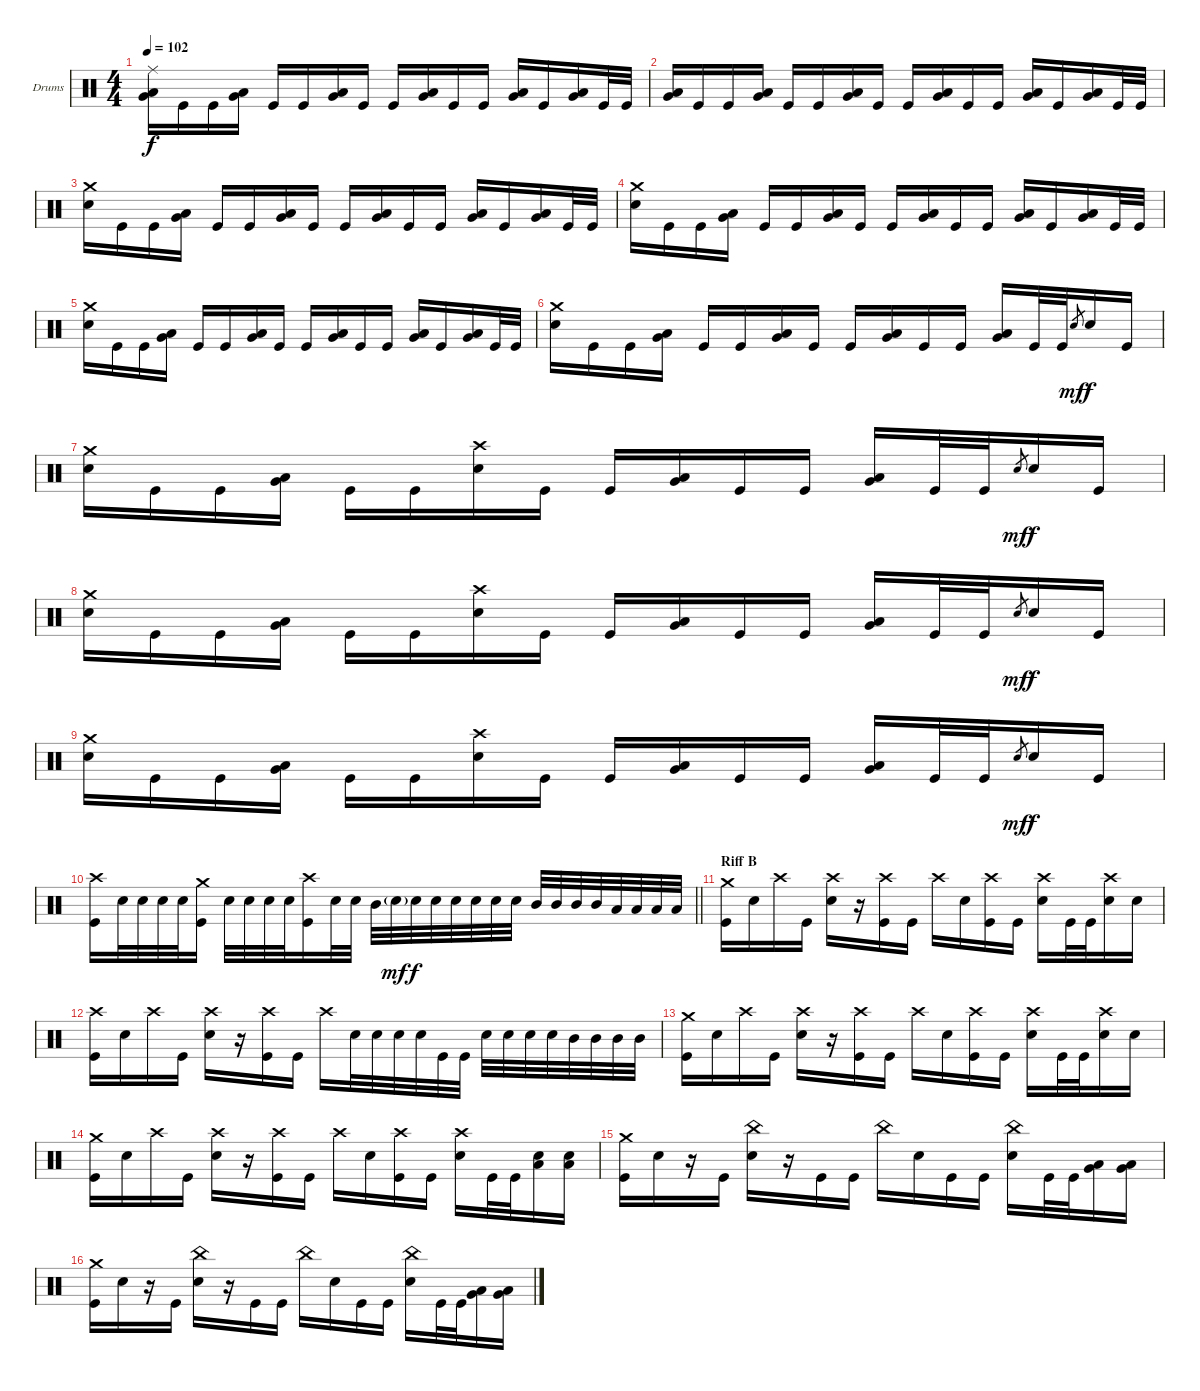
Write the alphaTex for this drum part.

\bracketExtendMode groupsimilarinstruments
\firstSystemTrackNameOrientation horizontal
\otherSystemsTrackNameOrientation horizontal
\track ("Dave McClain" "Drums") {instrument percussion}
\staff {score}
\articulation defaults
\ts (4 4)
\tempo 102
\clef neutral
\ks c
("Ride (middle)" "Low Tom (hit)" "Very Low Tom (hit)").16{dy f} "Kick (hit)".16 "Kick (hit)".16 ("Low Tom (hit)" "Very Low Tom (hit)").16 "Kick (hit)".16 "Kick (hit)".16 ("Low Tom (hit)" "Very Low Tom (hit)").16 "Kick (hit)".16 "Kick (hit)".16 ("Low Tom (hit)" "Very Low Tom (hit)").16 "Kick (hit)".16 "Kick (hit)".16 ("Low Tom (hit)" "Very Low Tom (hit)").16 "Kick (hit)".16 ("Low Tom (hit)" "Very Low Tom (hit)").16 "Kick (hit)".32 "Kick (hit)".32 |
("Low Tom (hit)" "Very Low Tom (hit)").16 "Kick (hit)".16 "Kick (hit)".16 ("Low Tom (hit)" "Very Low Tom (hit)").16 "Kick (hit)".16 "Kick (hit)".16 ("Low Tom (hit)" "Very Low Tom (hit)").16 "Kick (hit)".16 "Kick (hit)".16 ("Low Tom (hit)" "Very Low Tom (hit)").16 "Kick (hit)".16 "Kick (hit)".16 ("Low Tom (hit)" "Very Low Tom (hit)").16 "Kick (hit)".16 ("Low Tom (hit)" "Very Low Tom (hit)").16 "Kick (hit)".32 "Kick (hit)".32 |
("Crash medium (hit)" "Snare (hit) 2").16 "Kick (hit)".16 "Kick (hit)".16 ("Low Tom (hit)" "Very Low Tom (hit)").16 "Kick (hit)".16 "Kick (hit)".16 ("Low Tom (hit)" "Very Low Tom (hit)").16 "Kick (hit)".16 "Kick (hit)".16 ("Low Tom (hit)" "Very Low Tom (hit)").16 "Kick (hit)".16 "Kick (hit)".16 ("Low Tom (hit)" "Very Low Tom (hit)").16 "Kick (hit)".16 ("Low Tom (hit)" "Very Low Tom (hit)").16 "Kick (hit)".32 "Kick (hit)".32 |
("Crash medium (hit)" "Snare (hit) 2").16 "Kick (hit)".16 "Kick (hit)".16 ("Low Tom (hit)" "Very Low Tom (hit)").16 "Kick (hit)".16 "Kick (hit)".16 ("Low Tom (hit)" "Very Low Tom (hit)").16 "Kick (hit)".16 "Kick (hit)".16 ("Low Tom (hit)" "Very Low Tom (hit)").16 "Kick (hit)".16 "Kick (hit)".16 ("Low Tom (hit)" "Very Low Tom (hit)").16 "Kick (hit)".16 ("Low Tom (hit)" "Very Low Tom (hit)").16 "Kick (hit)".32 "Kick (hit)".32 |
("Crash medium (hit)" "Snare (hit) 2").16 "Kick (hit)".16 "Kick (hit)".16 ("Low Tom (hit)" "Very Low Tom (hit)").16 "Kick (hit)".16 "Kick (hit)".16 ("Low Tom (hit)" "Very Low Tom (hit)").16 "Kick (hit)".16 "Kick (hit)".16 ("Low Tom (hit)" "Very Low Tom (hit)").16 "Kick (hit)".16 "Kick (hit)".16 ("Low Tom (hit)" "Very Low Tom (hit)").16 "Kick (hit)".16 ("Low Tom (hit)" "Very Low Tom (hit)").16 "Kick (hit)".32 "Kick (hit)".32 |
("Crash medium (hit)" "Snare (hit) 2").16 "Kick (hit)".16 "Kick (hit)".16 ("Low Tom (hit)" "Very Low Tom (hit)").16 "Kick (hit)".16 "Kick (hit)".16 ("Low Tom (hit)" "Very Low Tom (hit)").16 "Kick (hit)".16 "Kick (hit)".16 ("Low Tom (hit)" "Very Low Tom (hit)").16 "Kick (hit)".16 "Kick (hit)".16 ("Low Tom (hit)" "Very Low Tom (hit)").16 "Kick (hit)".32 "Kick (hit)".32 "Snare (hit) 2".8{gr dy mf} "Snare (hit) 2".16{dy f} "Kick (hit)".16 |
("Crash medium (hit)" "Snare (hit) 2").16 "Kick (hit)".16 "Kick (hit)".16 ("Low Tom (hit)" "Very Low Tom (hit)").16 "Kick (hit)".16 "Kick (hit)".16 ("Crash high (hit)" "Snare (hit) 2").16 "Kick (hit)".16 "Kick (hit)".16 ("Low Tom (hit)" "Very Low Tom (hit)").16 "Kick (hit)".16 "Kick (hit)".16 ("Low Tom (hit)" "Very Low Tom (hit)").16 "Kick (hit)".32 "Kick (hit)".32 "Snare (hit) 2".8{gr dy mf} "Snare (hit) 2".16{dy f} "Kick (hit)".16 |
("Crash medium (hit)" "Snare (hit) 2").16 "Kick (hit)".16 "Kick (hit)".16 ("Low Tom (hit)" "Very Low Tom (hit)").16 "Kick (hit)".16 "Kick (hit)".16 ("Crash high (hit)" "Snare (hit) 2").16 "Kick (hit)".16 "Kick (hit)".16 ("Low Tom (hit)" "Very Low Tom (hit)").16 "Kick (hit)".16 "Kick (hit)".16 ("Low Tom (hit)" "Very Low Tom (hit)").16 "Kick (hit)".32 "Kick (hit)".32 "Snare (hit) 2".8{gr dy mf} "Snare (hit) 2".16{dy f} "Kick (hit)".16 |
("Crash medium (hit)" "Snare (hit) 2").16 "Kick (hit)".16 "Kick (hit)".16 ("Low Tom (hit)" "Very Low Tom (hit)").16 "Kick (hit)".16 "Kick (hit)".16 ("Crash high (hit)" "Snare (hit) 2").16 "Kick (hit)".16 "Kick (hit)".16 ("Low Tom (hit)" "Very Low Tom (hit)").16 "Kick (hit)".16 "Kick (hit)".16 ("Low Tom (hit)" "Very Low Tom (hit)").16 "Kick (hit)".32 "Kick (hit)".32 "Snare (hit) 2".8{gr dy mf} "Snare (hit) 2".16{dy f} "Kick (hit)".16 |
\barLineRight lightlight
("Crash high (hit)" "Kick (hit)").16 "Snare (hit) 2".32 "Snare (hit) 2".32 "Snare (hit) 2".32 "Snare (hit) 2".32 ("Crash medium (hit)" "Kick (hit)").16 "Snare (hit) 2".32 "Snare (hit) 2".32 "Snare (hit) 2".32 "Snare (hit) 2".32 ("Crash high (hit)" "Kick (hit)").16 "Snare (hit) 2".32 "Snare (hit) 2".32 "Mid Tom (hit)".32 "Snare (hit) 2"{g}.32{dy mf} "Snare (hit) 2".32{dy f} "Snare (hit) 2".32 "Snare (hit) 2".32 "Snare (hit) 2".32 "Snare (hit) 2".32 "Snare (hit) 2".32 "Mid Tom (hit)".32 "Mid Tom (hit)".32 "Mid Tom (hit)".32 "Mid Tom (hit)".32 "Low Tom (hit)".32 "Low Tom (hit)".32 "Low Tom (hit)".32 "Low Tom (hit)".32 |
\section ("" "Riff B")
("Crash medium (hit)" "Kick (hit)").16 "Snare (hit) 2".16 "Crash high (hit)".16 "Kick (hit)".16 ("Crash high (hit)" "Snare (hit) 2").16 r.16 ("Crash high (hit)" "Kick (hit)").16 "Kick (hit)".16 "Crash high (hit)".16 "Snare (hit) 2".16 ("Crash high (hit)" "Kick (hit)").16 "Kick (hit)".16 ("Crash high (hit)" "Snare (hit) 2").16 "Kick (hit)".32 "Kick (hit)".32 ("Crash high (hit)" "Snare (hit) 2").16 "Snare (hit) 2".16 |
("Crash high (hit)" "Kick (hit)").16 "Snare (hit) 2".16 "Crash high (hit)".16 "Kick (hit)".16 ("Crash high (hit)" "Snare (hit) 2").16 r.16 ("Crash high (hit)" "Kick (hit)").16 "Kick (hit)".16 "Crash high (hit)".16 "Snare (hit) 2".32 "Snare (hit) 2".32 "Snare (hit) 2".32 "Snare (hit) 2".32 "Kick (hit)".32 "Kick (hit)".32 "Snare (hit) 2".32 "Snare (hit) 2".32 "Snare (hit) 2".32 "Snare (hit) 2".32 "Mid Tom (hit)".32 "Mid Tom (hit)".32 "Mid Tom (hit)".32 "Mid Tom (hit)".32 |
("Crash medium (hit)" "Kick (hit)").16 "Snare (hit) 2".16 "Crash high (hit)".16 "Kick (hit)".16 ("Crash high (hit)" "Snare (hit) 2").16 r.16 ("Crash high (hit)" "Kick (hit)").16 "Kick (hit)".16 "Crash high (hit)".16 "Snare (hit) 2".16 ("Crash high (hit)" "Kick (hit)").16 "Kick (hit)".16 ("Crash high (hit)" "Snare (hit) 2").16 "Kick (hit)".32 "Kick (hit)".32 ("Crash high (hit)" "Snare (hit) 2").16 "Snare (hit) 2".16 |
("Crash medium (hit)" "Kick (hit)").16 "Snare (hit) 2".16 "Crash high (hit)".16 "Kick (hit)".16 ("Crash high (hit)" "Snare (hit) 2").16 r.16 ("Crash high (hit)" "Kick (hit)").16 "Kick (hit)".16 "Crash high (hit)".16 "Snare (hit) 2".16 ("Crash high (hit)" "Kick (hit)").16 "Kick (hit)".16 ("Crash high (hit)" "Snare (hit) 2").16 "Kick (hit)".32 "Kick (hit)".32 ("Snare (hit) 2" "Low Tom (hit)").16 ("Snare (hit) 2" "Low Tom (hit)").16 |
("Crash medium (hit)" "Kick (hit)").16 "Snare (hit) 2".16 r.16 "Kick (hit)".16 ("China (hit)" "Snare (hit) 2").16 r.16 "Kick (hit)".16 "Kick (hit)".16 "China (hit)".16 "Snare (hit) 2".16 "Kick (hit)".16 "Kick (hit)".16 ("China (hit)" "Snare (hit) 2").16 "Kick (hit)".32 "Kick (hit)".32 ("Low Tom (hit)" "Very Low Tom (hit)").16 ("Low Tom (hit)" "Very Low Tom (hit)").16 |
("Crash medium (hit)" "Kick (hit)").16 "Snare (hit) 2".16 r.16 "Kick (hit)".16 ("China (hit)" "Snare (hit) 2").16 r.16 "Kick (hit)".16 "Kick (hit)".16 "China (hit)".16 "Snare (hit) 2".16 "Kick (hit)".16 "Kick (hit)".16 ("China (hit)" "Snare (hit) 2").16 "Kick (hit)".32 "Kick (hit)".32 ("Low Tom (hit)" "Very Low Tom (hit)").16 ("Low Tom (hit)" "Very Low Tom (hit)").16
